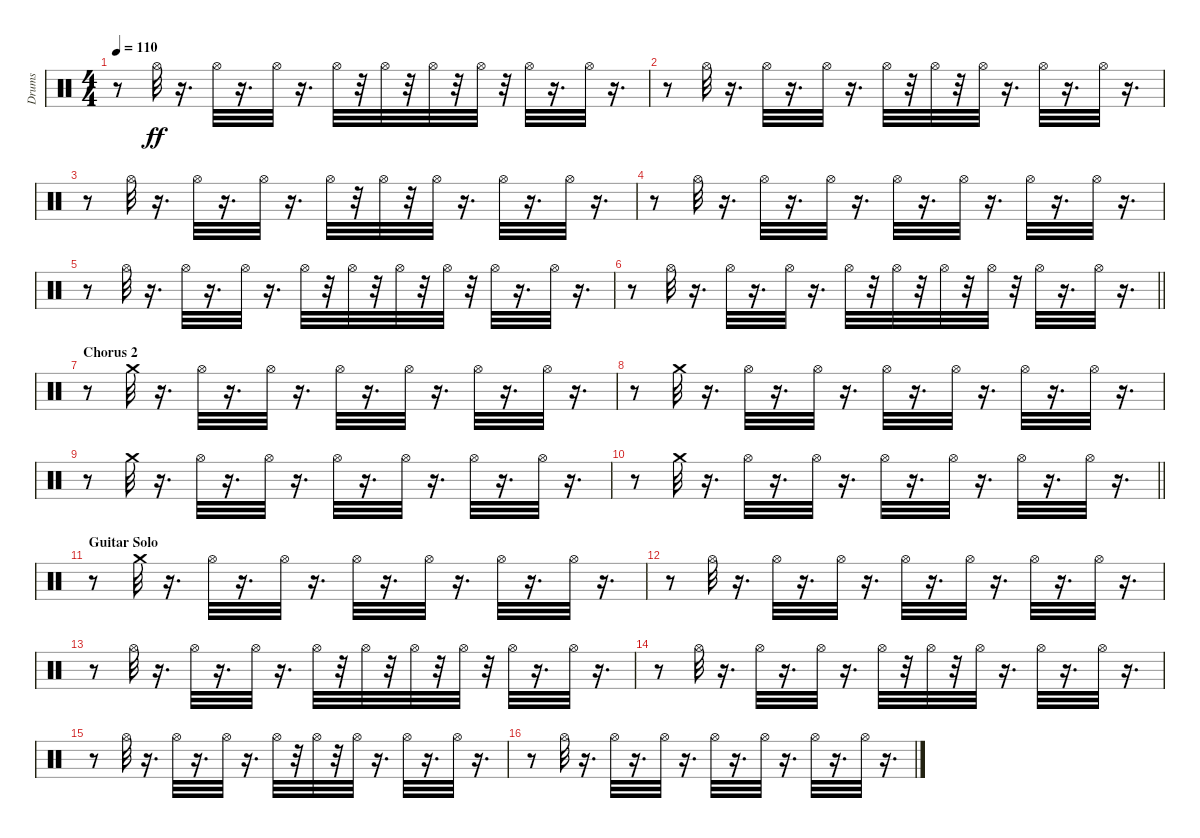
\track ("Drums" "Drums") {instrument percussion}
\staff {score}
\articulation defaults
\ts (4 4)
\tempo 110
\clef neutral
\ks c
r.8{dy ff} "Hi-Hat (open)".32 r.16{d} "Hi-Hat (open)".32 r.16{d} "Hi-Hat (open)".32 r.16{d} "Hi-Hat (open)".32 r.32 "Hi-Hat (open)".32 r.32 "Hi-Hat (open)".32 r.32 "Hi-Hat (open)".32 r.32 "Hi-Hat (open)".32 r.16{d} "Hi-Hat (open)".32 r.16{d} |
r.8 "Hi-Hat (open)".32 r.16{d} "Hi-Hat (open)".32 r.16{d} "Hi-Hat (open)".32 r.16{d} "Hi-Hat (open)".32 r.32 "Hi-Hat (open)".32 r.32 "Hi-Hat (open)".32 r.16{d} "Hi-Hat (open)".32 r.16{d} "Hi-Hat (open)".32 r.16{d} |
r.8 "Hi-Hat (open)".32 r.16{d} "Hi-Hat (open)".32 r.16{d} "Hi-Hat (open)".32 r.16{d} "Hi-Hat (open)".32 r.32 "Hi-Hat (open)".32 r.32 "Hi-Hat (open)".32 r.16{d} "Hi-Hat (open)".32 r.16{d} "Hi-Hat (open)".32 r.16{d} |
r.8 "Hi-Hat (open)".32 r.16{d} "Hi-Hat (open)".32 r.16{d} "Hi-Hat (open)".32 r.16{d} "Hi-Hat (open)".32 r.16{d} "Hi-Hat (open)".32 r.16{d} "Hi-Hat (open)".32 r.16{d} "Hi-Hat (open)".32 r.16{d} |
r.8 "Hi-Hat (open)".32 r.16{d} "Hi-Hat (open)".32 r.16{d} "Hi-Hat (open)".32 r.16{d} "Hi-Hat (open)".32 r.32 "Hi-Hat (open)".32 r.32 "Hi-Hat (open)".32 r.32 "Hi-Hat (open)".32 r.32 "Hi-Hat (open)".32 r.16{d} "Hi-Hat (open)".32 r.16{d} |
\barLineRight lightlight
r.8 "Hi-Hat (open)".32 r.16{d} "Hi-Hat (open)".32 r.16{d} "Hi-Hat (open)".32 r.16{d} "Hi-Hat (open)".32 r.32 "Hi-Hat (open)".32 r.32 "Hi-Hat (open)".32 r.32 "Hi-Hat (open)".32 r.32 "Hi-Hat (open)".32 r.16{d} "Hi-Hat (open)".32 r.16{d} |
\section ("" "Chorus 2")
r.8 "Crash medium (hit)".32 r.16{d} "Hi-Hat (open)".32 r.16{d} "Hi-Hat (open)".32 r.16{d} "Hi-Hat (open)".32 r.16{d} "Hi-Hat (open)".32 r.16{d} "Hi-Hat (open)".32 r.16{d} "Hi-Hat (open)".32 r.16{d} |
r.8 "Crash medium (hit)".32 r.16{d} "Hi-Hat (open)".32 r.16{d} "Hi-Hat (open)".32 r.16{d} "Hi-Hat (open)".32 r.16{d} "Hi-Hat (open)".32 r.16{d} "Hi-Hat (open)".32 r.16{d} "Hi-Hat (open)".32 r.16{d} |
r.8 "Crash medium (hit)".32 r.16{d} "Hi-Hat (open)".32 r.16{d} "Hi-Hat (open)".32 r.16{d} "Hi-Hat (open)".32 r.16{d} "Hi-Hat (open)".32 r.16{d} "Hi-Hat (open)".32 r.16{d} "Hi-Hat (open)".32 r.16{d} |
\barLineRight lightlight
r.8 "Crash medium (hit)".32 r.16{d} "Hi-Hat (open)".32 r.16{d} "Hi-Hat (open)".32 r.16{d} "Hi-Hat (open)".32 r.16{d} "Hi-Hat (open)".32 r.16{d} "Hi-Hat (open)".32 r.16{d} "Hi-Hat (open)".32 r.16{d} |
\section ("" "Guitar Solo")
r.8 "Crash medium (hit)".32 r.16{d} "Hi-Hat (open)".32 r.16{d} "Hi-Hat (open)".32 r.16{d} "Hi-Hat (open)".32 r.16{d} "Hi-Hat (open)".32 r.16{d} "Hi-Hat (open)".32 r.16{d} "Hi-Hat (open)".32 r.16{d} |
r.8 "Hi-Hat (open)".32 r.16{d} "Hi-Hat (open)".32 r.16{d} "Hi-Hat (open)".32 r.16{d} "Hi-Hat (open)".32 r.16{d} "Hi-Hat (open)".32 r.16{d} "Hi-Hat (open)".32 r.16{d} "Hi-Hat (open)".32 r.16{d} |
r.8 "Hi-Hat (open)".32 r.16{d} "Hi-Hat (open)".32 r.16{d} "Hi-Hat (open)".32 r.16{d} "Hi-Hat (open)".32 r.32 "Hi-Hat (open)".32 r.32 "Hi-Hat (open)".32 r.32 "Hi-Hat (open)".32 r.32 "Hi-Hat (open)".32 r.16{d} "Hi-Hat (open)".32 r.16{d} |
r.8 "Hi-Hat (open)".32 r.16{d} "Hi-Hat (open)".32 r.16{d} "Hi-Hat (open)".32 r.16{d} "Hi-Hat (open)".32 r.32 "Hi-Hat (open)".32 r.32 "Hi-Hat (open)".32 r.16{d} "Hi-Hat (open)".32 r.16{d} "Hi-Hat (open)".32 r.16{d} |
r.8 "Hi-Hat (open)".32 r.16{d} "Hi-Hat (open)".32 r.16{d} "Hi-Hat (open)".32 r.16{d} "Hi-Hat (open)".32 r.32 "Hi-Hat (open)".32 r.32 "Hi-Hat (open)".32 r.16{d} "Hi-Hat (open)".32 r.16{d} "Hi-Hat (open)".32 r.16{d} |
r.8 "Hi-Hat (open)".32 r.16{d} "Hi-Hat (open)".32 r.16{d} "Hi-Hat (open)".32 r.16{d} "Hi-Hat (open)".32 r.16{d} "Hi-Hat (open)".32 r.16{d} "Hi-Hat (open)".32 r.16{d} "Hi-Hat (open)".32 r.16{d}
